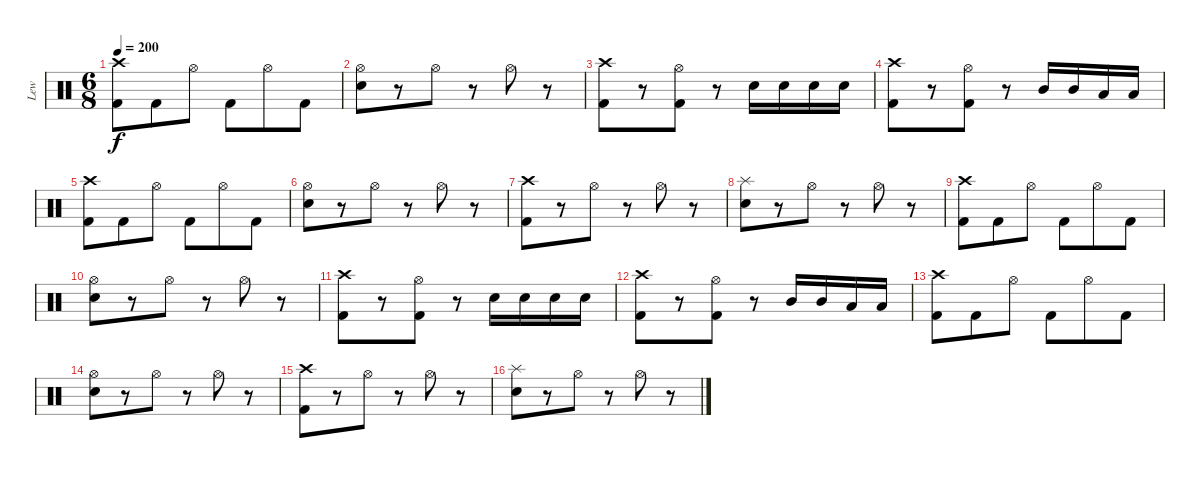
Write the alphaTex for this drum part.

\track ("Lew" "Lew") {instrument percussion}
\staff {score}
\articulation defaults
\ts (6 8)
\tempo 200
\clef neutral
\ks c
("Crash high (hit)" "Kick (hit) 2").8{dy f} "Kick (hit) 2".8 "Hi-Hat (open)".8 "Kick (hit) 2".8 "Hi-Hat (open)".8 "Kick (hit) 2".8 |
("Hi-Hat (open)" "Electric Snare (hit)").8 r.8 "Hi-Hat (open)".8 r.8 "Hi-Hat (open)".8 r.8 |
("Crash high (hit)" "Kick (hit) 2").8 r.8 ("Hi-Hat (open)" "Kick (hit) 2").8 r.8 "Electric Snare (hit)".16 "Electric Snare (hit)".16 "Electric Snare (hit)".16 "Electric Snare (hit)".16 |
("Crash high (hit)" "Kick (hit) 2").8 r.8 ("Hi-Hat (open)" "Kick (hit) 2").8 r.8 "Mid Tom (hit)".16 "Mid Tom (hit)".16 "Low Tom (hit)".16 "Low Tom (hit)".16 |
("Crash high (hit)" "Kick (hit) 2").8 "Kick (hit) 2".8 "Hi-Hat (open)".8 "Kick (hit) 2".8 "Hi-Hat (open)".8 "Kick (hit) 2".8 |
("Hi-Hat (open)" "Electric Snare (hit)").8 r.8 "Hi-Hat (open)".8 r.8 "Hi-Hat (open)".8 r.8 |
("Crash high (hit)" "Kick (hit) 2").8 r.8 "Hi-Hat (open)".8 r.8 "Hi-Hat (open)".8 r.8 |
("Splash (hit)" "Electric Snare (hit)").8 r.8 "Hi-Hat (open)".8 r.8 "Hi-Hat (open)".8 r.8 |
("Crash high (hit)" "Kick (hit) 2").8 "Kick (hit) 2".8 "Hi-Hat (open)".8 "Kick (hit) 2".8 "Hi-Hat (open)".8 "Kick (hit) 2".8 |
("Hi-Hat (open)" "Electric Snare (hit)").8 r.8 "Hi-Hat (open)".8 r.8 "Hi-Hat (open)".8 r.8 |
("Crash high (hit)" "Kick (hit) 2").8 r.8 ("Hi-Hat (open)" "Kick (hit) 2").8 r.8 "Electric Snare (hit)".16 "Electric Snare (hit)".16 "Electric Snare (hit)".16 "Electric Snare (hit)".16 |
("Crash high (hit)" "Kick (hit) 2").8 r.8 ("Hi-Hat (open)" "Kick (hit) 2").8 r.8 "Mid Tom (hit)".16 "Mid Tom (hit)".16 "Low Tom (hit)".16 "Low Tom (hit)".16 |
("Crash high (hit)" "Kick (hit) 2").8 "Kick (hit) 2".8 "Hi-Hat (open)".8 "Kick (hit) 2".8 "Hi-Hat (open)".8 "Kick (hit) 2".8 |
("Hi-Hat (open)" "Electric Snare (hit)").8 r.8 "Hi-Hat (open)".8 r.8 "Hi-Hat (open)".8 r.8 |
("Crash high (hit)" "Kick (hit) 2").8 r.8 "Hi-Hat (open)".8 r.8 "Hi-Hat (open)".8 r.8 |
("Splash (hit)" "Electric Snare (hit)").8 r.8 "Hi-Hat (open)".8 r.8 "Hi-Hat (open)".8 r.8
